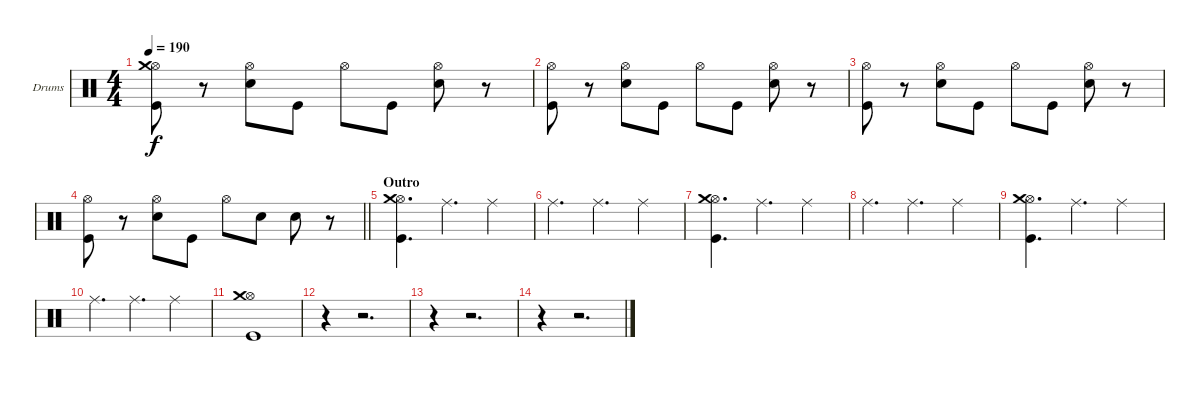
\bracketExtendMode groupsimilarinstruments
\firstSystemTrackNameOrientation horizontal
\otherSystemsTrackNameOrientation horizontal
\track ("Drumkit" "Drums") {instrument percussion}
\staff {score}
\articulation defaults
\ts (4 4)
\tempo 190
\clef neutral
\ks c
("Hi-Hat (open)" "Crash medium (hit)" "Kick (hit)").8{dy f} r.8 ("Hi-Hat (open)" "Snare (hit) 2").8 "Kick (hit)".8 "Hi-Hat (open)".8 "Kick (hit)".8 ("Hi-Hat (open)" "Snare (hit) 2").8 r.8 |
("Hi-Hat (open)" "Kick (hit)").8 r.8 ("Hi-Hat (open)" "Snare (hit) 2").8 "Kick (hit)".8 "Hi-Hat (open)".8 "Kick (hit)".8 ("Hi-Hat (open)" "Snare (hit) 2").8 r.8 |
("Hi-Hat (open)" "Kick (hit)").8 r.8 ("Hi-Hat (open)" "Snare (hit) 2").8 "Kick (hit)".8 "Hi-Hat (open)".8 "Kick (hit)".8 ("Hi-Hat (open)" "Snare (hit) 2").8 r.8 |
\barLineRight lightlight
("Hi-Hat (open)" "Kick (hit)").8 r.8 ("Hi-Hat (open)" "Snare (hit) 2").8 "Kick (hit)".8 "Hi-Hat (open)".8 "Snare (hit) 2".8 "Snare (hit) 2".8 r.8 |
\section ("" "Outro")
("Kick (hit)" "Hi-Hat (open)" "Crash medium (hit)").4{d} "Ride (middle)".4{d} "Ride (middle)".4 |
"Ride (middle)".4{d} "Ride (middle)".4{d} "Ride (middle)".4 |
("Kick (hit)" "Hi-Hat (open)" "Crash medium (hit)").4{d} "Ride (middle)".4{d} "Ride (middle)".4 |
"Ride (middle)".4{d} "Ride (middle)".4{d} "Ride (middle)".4 |
("Kick (hit)" "Hi-Hat (open)" "Crash medium (hit)").4{d} "Ride (middle)".4{d} "Ride (middle)".4 |
"Ride (middle)".4{d} "Ride (middle)".4{d} "Ride (middle)".4 |
("Kick (hit)" "Hi-Hat (open)" "Crash medium (hit)").1 |
r.4 r.2{d} |
r.4 r.2{d} |
r.4 r.2{d}
